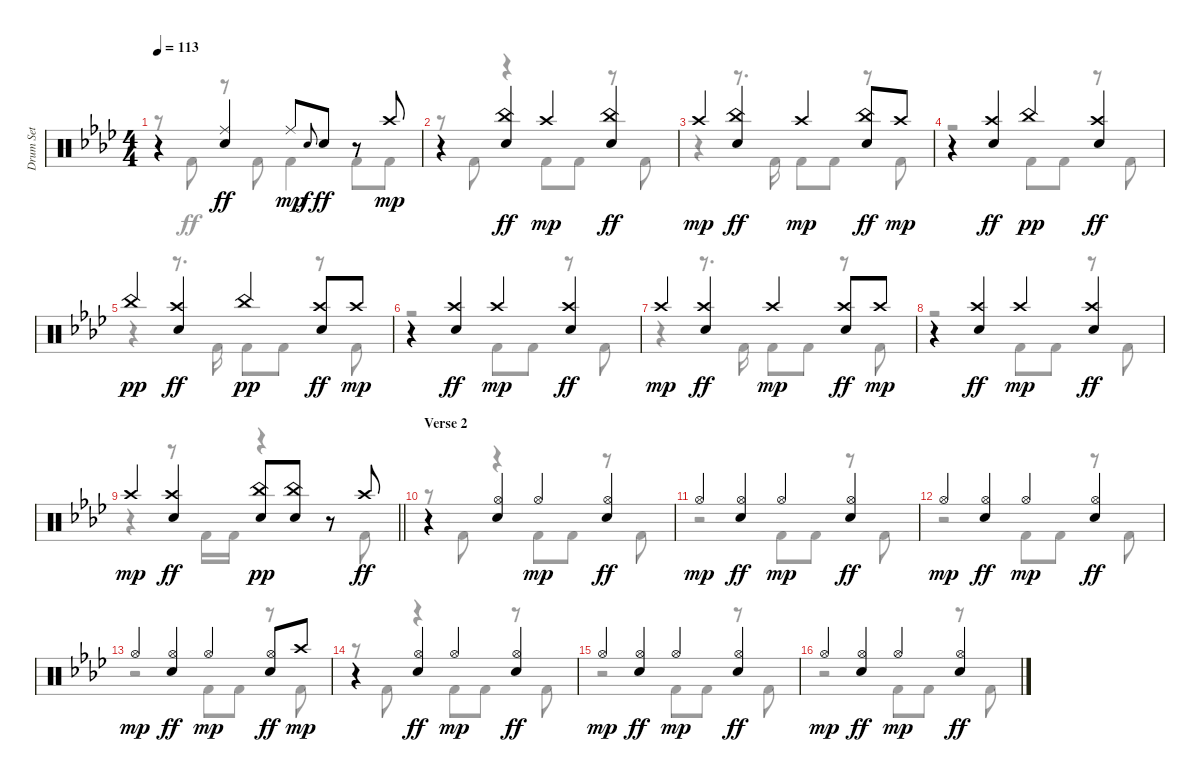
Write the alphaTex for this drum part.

\track ("Drum Set" "Drum Set") {instrument percussion}
\staff {score}
\articulation defaults
\voice
\ts (4 4)
\tempo 113
\clef neutral
\ks fminor
r.4{dy p} ("Ride (middle)" "Electric Snare (hit)").4{dy ff} "Ride (middle)".8{dy mp} "Electric Snare (hit)".8{gr onbeat dy f} "Electric Snare (hit)".8{dy ff} r.8 "Crash high (hit)".8{dy mp} |
r.4 ("China (hit)" "Electric Snare (hit)").4{dy ff} "Crash high (hit)".4{dy mp} ("China (hit)" "Electric Snare (hit)").4{dy ff} |
"Crash high (hit)".4{dy mp} ("China (hit)" "Electric Snare (hit)").4{dy ff} "Crash high (hit)".4{dy mp} ("China (hit)" "Electric Snare (hit)").8{dy ff} "Crash high (hit)".8{dy mp} |
r.4 ("Crash high (hit)" "Electric Snare (hit)").4{dy ff} "China (hit)".4{dy pp} ("Crash high (hit)" "Electric Snare (hit)").4{dy ff} |
"China (hit)".4{dy pp} ("Crash high (hit)" "Electric Snare (hit)").4{dy ff} "China (hit)".4{dy pp} ("Crash high (hit)" "Electric Snare (hit)").8{dy ff} "Crash high (hit)".8{dy mp} |
r.4 ("Crash high (hit)" "Electric Snare (hit)").4{dy ff} "Crash high (hit)".4{dy mp} ("Crash high (hit)" "Electric Snare (hit)").4{dy ff} |
"Crash high (hit)".4{dy mp} ("Crash high (hit)" "Electric Snare (hit)").4{dy ff} "Crash high (hit)".4{dy mp} ("Crash high (hit)" "Electric Snare (hit)").8{dy ff} "Crash high (hit)".8{dy mp} |
r.4 ("Crash high (hit)" "Electric Snare (hit)").4{dy ff} "Crash high (hit)".4{dy mp} ("Crash high (hit)" "Electric Snare (hit)").4{dy ff} |
\barLineRight lightlight "Crash high (hit)".4{dy mp}
("Crash high (hit)" "Electric Snare (hit)").4{dy ff} ("Electric Snare (hit)" "China (hit)").8{dy pp} ("Electric Snare (hit)" "China (hit)").8 r.8 "Crash high (hit)".8{dy ff} |
\section ("" "Verse 2")
r.4 ("Hi-Hat (open)" "Electric Snare (hit)").4 "Hi-Hat (open)".4{dy mp} ("Hi-Hat (open)" "Electric Snare (hit)").4{dy ff} |
"Hi-Hat (open)".4{dy mp} ("Hi-Hat (open)" "Electric Snare (hit)").4{dy ff} "Hi-Hat (open)".4{dy mp} ("Hi-Hat (open)" "Electric Snare (hit)").4{dy ff} |
"Hi-Hat (open)".4{dy mp} ("Hi-Hat (open)" "Electric Snare (hit)").4{dy ff} "Hi-Hat (open)".4{dy mp} ("Hi-Hat (open)" "Electric Snare (hit)").4{dy ff} |
"Hi-Hat (open)".4{dy mp} ("Hi-Hat (open)" "Electric Snare (hit)").4{dy ff} "Hi-Hat (open)".4{dy mp} ("Hi-Hat (open)" "Electric Snare (hit)").8{dy ff} "Crash high (hit)".8{dy mp} |
r.4 ("Hi-Hat (open)" "Electric Snare (hit)").4{dy ff} "Hi-Hat (open)".4{dy mp} ("Hi-Hat (open)" "Electric Snare (hit)").4{dy ff} |
"Hi-Hat (open)".4{dy mp} ("Hi-Hat (open)" "Electric Snare (hit)").4{dy ff} "Hi-Hat (open)".4{dy mp} ("Hi-Hat (open)" "Electric Snare (hit)").4{dy ff} |
"Hi-Hat (open)".4{dy mp} ("Hi-Hat (open)" "Electric Snare (hit)").4{dy ff} "Hi-Hat (open)".4{dy mp} ("Hi-Hat (open)" "Electric Snare (hit)").4{dy ff}
\voice
\clef neutral
\ottava regular
\simile none
\ks fminor
r.8{dy ff} "Kick (hit) 2".8 r.8 "Kick (hit) 2".8 "Kick (hit) 2".4 "Kick (hit) 2".8 "Kick (hit) 2".8 |
r.8 "Kick (hit) 2".8 r.4 "Kick (hit) 2".8 "Kick (hit) 2".8 r.8 "Kick (hit) 2".8 |
r.4 r.8{d} "Kick (hit) 2".16 "Kick (hit) 2".8 "Kick (hit) 2".8 r.8 "Kick (hit) 2".8 |
r.2 "Kick (hit) 2".8 "Kick (hit) 2".8 r.8 "Kick (hit) 2".8 |
r.4 r.8{d} "Kick (hit) 2".16 "Kick (hit) 2".8 "Kick (hit) 2".8 r.8 "Kick (hit) 2".8 |
r.2 "Kick (hit) 2".8 "Kick (hit) 2".8 r.8 "Kick (hit) 2".8 |
r.4 r.8{d} "Kick (hit) 2".16 "Kick (hit) 2".8 "Kick (hit) 2".8 r.8 "Kick (hit) 2".8 |
r.2 "Kick (hit) 2".8 "Kick (hit) 2".8 r.8 "Kick (hit) 2".8 |
\barLineRight lightlight
r.4 r.8 "Kick (hit) 2".16 "Kick (hit) 2".16 r.4 r.8 "Kick (hit) 2".8 |
r.8 "Kick (hit) 2".8 r.4 "Kick (hit) 2".8 "Kick (hit) 2".8 r.8 "Kick (hit) 2".8 |
r.2 "Kick (hit) 2".8 "Kick (hit) 2".8 r.8 "Kick (hit) 2".8 |
r.2 "Kick (hit) 2".8 "Kick (hit) 2".8 r.8 "Kick (hit) 2".8 |
r.2 "Kick (hit) 2".8 "Kick (hit) 2".8 r.8 "Kick (hit) 2".8 |
r.8 "Kick (hit) 2".8 r.4 "Kick (hit) 2".8 "Kick (hit) 2".8 r.8 "Kick (hit) 2".8 |
r.2 "Kick (hit) 2".8 "Kick (hit) 2".8 r.8 "Kick (hit) 2".8 |
r.2 "Kick (hit) 2".8 "Kick (hit) 2".8 r.8 "Kick (hit) 2".8
